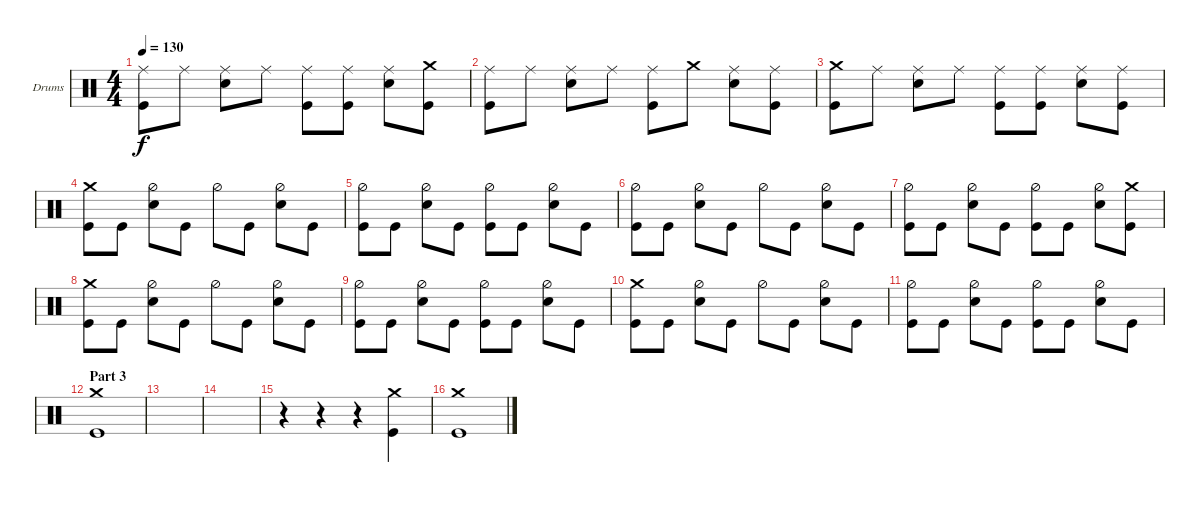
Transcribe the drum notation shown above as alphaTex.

\defaultSystemsLayout 4
\bracketExtendMode groupsimilarinstruments
\firstSystemTrackNameOrientation horizontal
\otherSystemsTrackNameOrientation horizontal
\track ("Drumkit" "Drums") {instrument percussion}
\staff {score}
\articulation defaults
\ts (4 4)
\tempo 130
\clef neutral
\ks aminor
("Kick (hit)" "Ride (middle)").8{dy f} "Ride (middle)".8 ("Snare (hit) 2" "Ride (middle)").8 "Ride (middle)".8 ("Kick (hit)" "Ride (middle)").8 ("Kick (hit)" "Ride (middle)").8 ("Snare (hit) 2" "Ride (middle)").8 ("Kick (hit)" "Crash medium (hit)").8 |
("Kick (hit)" "Ride (middle)").8 "Ride (middle)".8 ("Snare (hit) 2" "Ride (middle)").8 "Ride (middle)".8 ("Kick (hit)" "Ride (middle)").8 "Crash medium (hit)".8 ("Snare (hit) 2" "Ride (middle)").8 ("Kick (hit)" "Ride (middle)").8 |
("Kick (hit)" "Crash medium (hit)").8 "Ride (middle)".8 ("Snare (hit) 2" "Ride (middle)").8 "Ride (middle)".8 ("Kick (hit)" "Ride (middle)").8 ("Kick (hit)" "Ride (middle)").8 ("Snare (hit) 2" "Ride (middle)").8 ("Kick (hit)" "Ride (middle)").8 |
("Kick (hit)" "Crash medium (hit)").8 "Kick (hit)".8 ("Snare (hit) 2" "Hi-Hat (half)").8 "Kick (hit)".8 "Hi-Hat (half)".8 "Kick (hit)".8 ("Snare (hit) 2" "Hi-Hat (half)").8 "Kick (hit)".8 |
("Kick (hit)" "Hi-Hat (half)").8 "Kick (hit)".8 ("Snare (hit) 2" "Hi-Hat (half)").8 "Kick (hit)".8 ("Kick (hit)" "Hi-Hat (half)").8 "Kick (hit)".8 ("Snare (hit) 2" "Hi-Hat (half)").8 "Kick (hit)".8 |
("Kick (hit)" "Hi-Hat (half)").8 "Kick (hit)".8 ("Snare (hit) 2" "Hi-Hat (half)").8 "Kick (hit)".8 "Hi-Hat (half)".8 "Kick (hit)".8 ("Snare (hit) 2" "Hi-Hat (half)").8 "Kick (hit)".8 |
("Kick (hit)" "Hi-Hat (half)").8 "Kick (hit)".8 ("Snare (hit) 2" "Hi-Hat (half)").8 "Kick (hit)".8 ("Kick (hit)" "Hi-Hat (half)").8 "Kick (hit)".8 ("Snare (hit) 2" "Hi-Hat (half)").8 ("Kick (hit)" "Crash medium (hit)").8 |
("Kick (hit)" "Crash medium (hit)").8 "Kick (hit)".8 ("Snare (hit) 2" "Hi-Hat (half)").8 "Kick (hit)".8 "Hi-Hat (half)".8 "Kick (hit)".8 ("Snare (hit) 2" "Hi-Hat (half)").8 "Kick (hit)".8 |
("Kick (hit)" "Hi-Hat (half)").8 "Kick (hit)".8 ("Snare (hit) 2" "Hi-Hat (half)").8 "Kick (hit)".8 ("Kick (hit)" "Hi-Hat (half)").8 "Kick (hit)".8 ("Snare (hit) 2" "Hi-Hat (half)").8 "Kick (hit)".8 |
("Kick (hit)" "Crash medium (hit)").8 "Kick (hit)".8 ("Snare (hit) 2" "Hi-Hat (half)").8 "Kick (hit)".8 "Hi-Hat (half)".8 "Kick (hit)".8 ("Snare (hit) 2" "Hi-Hat (half)").8 "Kick (hit)".8 |
("Kick (hit)" "Hi-Hat (half)").8 "Kick (hit)".8 ("Snare (hit) 2" "Hi-Hat (half)").8 "Kick (hit)".8 ("Kick (hit)" "Hi-Hat (half)").8 "Kick (hit)".8 ("Snare (hit) 2" "Hi-Hat (half)").8 "Kick (hit)".8 |
\section ("" "Part 3")
("Kick (hit)" "Crash medium (hit)").1 |
|
|
r.4 r.4 r.4 ("Kick (hit)" "Crash medium (hit)").4 |
("Kick (hit)" "Crash medium (hit)").1
